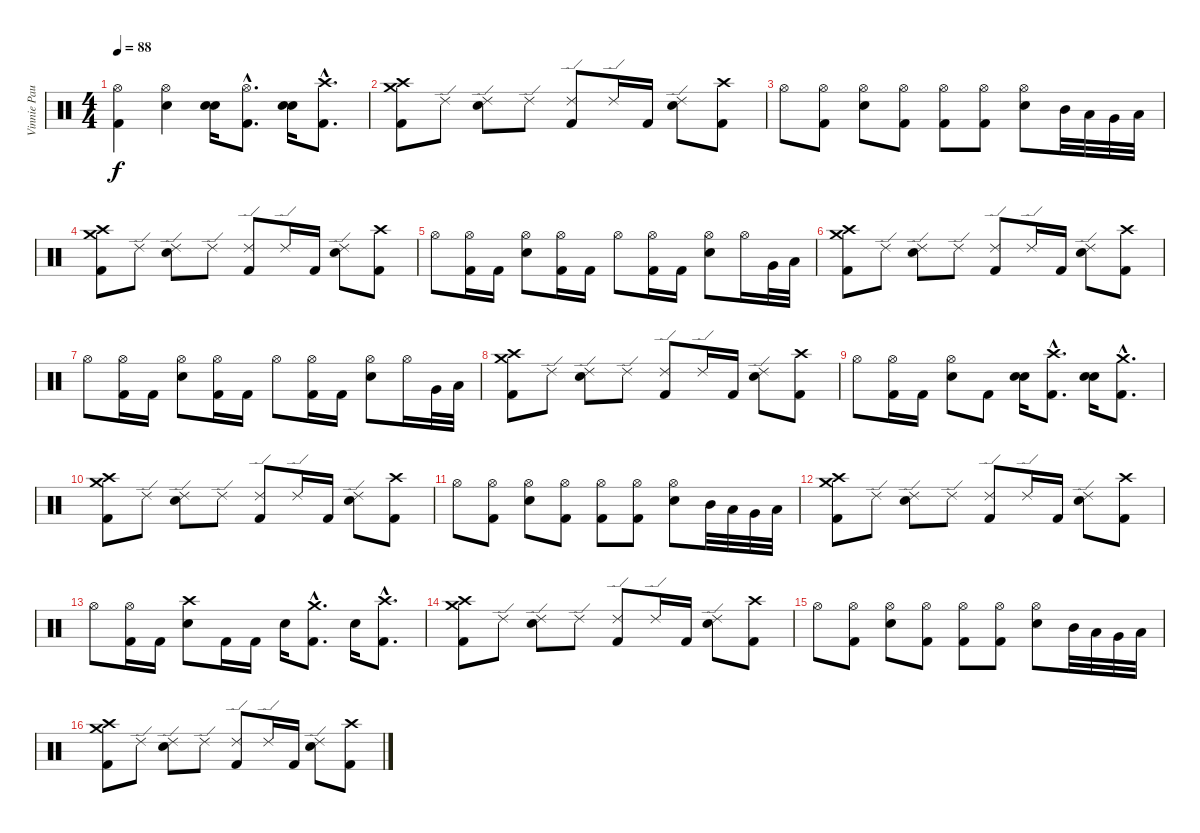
\track ("Vinnie Paul (Drums)" "Vinnie Pau") {instrument percussion}
\staff {score}
\articulation defaults
\ts (4 4)
\tempo 88
\clef neutral
\ks c
("Hi-Hat (open)" "Kick (hit) 2").4{dy f} ("Hi-Hat (open)" "Snare (hit) 2").4 ("Snare (hit) 2" "Snare (hit) 2").16{bd 480} ("Hi-Hat (open)"{hac} "Kick (hit) 2"{hac}).8{d} ("Snare (hit) 2" "Snare (hit) 2").16{bd 480} ("Crash high (hit)"{hac} "Kick (hit) 2"{hac}).8{d} |
("Crash high (hit)" "Crash medium (hit)" "Kick (hit) 2").8 "Ride (edge) 2".8 ("Ride (edge) 2" "Snare (hit) 2").8 "Ride (edge) 2".8 ("Ride (edge) 2" "Kick (hit) 2").8 "Ride (edge) 2".16 "Kick (hit) 2".16 ("Ride (edge) 2" "Snare (hit) 2").8 ("Crash high (hit)" "Kick (hit) 2").8 |
"Hi-Hat (open)".8 ("Hi-Hat (open)" "Kick (hit) 2").8 ("Hi-Hat (open)" "Snare (hit) 2").8 ("Hi-Hat (open)" "Kick (hit) 2").8 ("Hi-Hat (open)" "Kick (hit) 2").8 ("Hi-Hat (open)" "Kick (hit) 2").8 ("Hi-Hat (open)" "Snare (hit) 2").8 "Mid Tom (hit)".32 "Low Tom (hit)".32 "Very Low Tom (hit)".32 "Low Floor Tom (hit)".32 |
("Crash high (hit)" "Crash medium (hit)" "Kick (hit) 2").8 "Ride (edge) 2".8 ("Ride (edge) 2" "Snare (hit) 2").8 "Ride (edge) 2".8 ("Ride (edge) 2" "Kick (hit) 2").8 "Ride (edge) 2".16 "Kick (hit) 2".16 ("Ride (edge) 2" "Snare (hit) 2").8 ("Crash high (hit)" "Kick (hit) 2").8 |
"Hi-Hat (open)".8 ("Hi-Hat (open)" "Kick (hit) 2").16 "Kick (hit) 2".16 ("Hi-Hat (open)" "Snare (hit) 2").8 ("Hi-Hat (open)" "Kick (hit) 2").16 "Kick (hit) 2".16 "Hi-Hat (open)".8 ("Hi-Hat (open)" "Kick (hit) 2").16 "Kick (hit) 2".16 ("Hi-Hat (open)" "Snare (hit) 2").8 "Hi-Hat (open)".16 "Very Low Tom (hit)".32 "Low Floor Tom (hit)".32 |
("Crash high (hit)" "Crash medium (hit)" "Kick (hit) 2").8 "Ride (edge) 2".8 ("Ride (edge) 2" "Snare (hit) 2").8 "Ride (edge) 2".8 ("Ride (edge) 2" "Kick (hit) 2").8 "Ride (edge) 2".16 "Kick (hit) 2".16 ("Ride (edge) 2" "Snare (hit) 2").8 ("Crash high (hit)" "Kick (hit) 2").8 |
"Hi-Hat (open)".8 ("Hi-Hat (open)" "Kick (hit) 2").16 "Kick (hit) 2".16 ("Hi-Hat (open)" "Snare (hit) 2").8 ("Hi-Hat (open)" "Kick (hit) 2").16 "Kick (hit) 2".16 "Hi-Hat (open)".8 ("Hi-Hat (open)" "Kick (hit) 2").16 "Kick (hit) 2".16 ("Hi-Hat (open)" "Snare (hit) 2").8 "Hi-Hat (open)".16 "Very Low Tom (hit)".32 "Low Floor Tom (hit)".32 |
("Crash high (hit)" "Crash medium (hit)" "Kick (hit) 2").8 "Ride (edge) 2".8 ("Ride (edge) 2" "Snare (hit) 2").8 "Ride (edge) 2".8 ("Ride (edge) 2" "Kick (hit) 2").8 "Ride (edge) 2".16 "Kick (hit) 2".16 ("Ride (edge) 2" "Snare (hit) 2").8 ("Crash high (hit)" "Kick (hit) 2").8 |
"Hi-Hat (open)".8 ("Hi-Hat (open)" "Kick (hit) 2").16 "Kick (hit) 2".16 ("Hi-Hat (open)" "Snare (hit) 2").8 "Kick (hit) 2".8 ("Snare (hit) 2" "Snare (hit) 2").16{bd 480} ("Crash high (hit)"{hac} "Kick (hit) 2"{hac}).8{d} ("Snare (hit) 2" "Snare (hit) 2").16{bd 480} ("Crash medium (hit)"{hac} "Kick (hit) 2"{hac}).8{d} |
("Crash high (hit)" "Crash medium (hit)" "Kick (hit) 2").8 "Ride (edge) 2".8 ("Ride (edge) 2" "Snare (hit) 2").8 "Ride (edge) 2".8 ("Ride (edge) 2" "Kick (hit) 2").8 "Ride (edge) 2".16 "Kick (hit) 2".16 ("Ride (edge) 2" "Snare (hit) 2").8 ("Crash high (hit)" "Kick (hit) 2").8 |
"Hi-Hat (open)".8 ("Hi-Hat (open)" "Kick (hit) 2").8 ("Hi-Hat (open)" "Snare (hit) 2").8 ("Hi-Hat (open)" "Kick (hit) 2").8 ("Hi-Hat (open)" "Kick (hit) 2").8 ("Hi-Hat (open)" "Kick (hit) 2").8 ("Hi-Hat (open)" "Snare (hit) 2").8 "Mid Tom (hit)".32 "Low Tom (hit)".32 "Very Low Tom (hit)".32 "Low Floor Tom (hit)".32 |
("Crash high (hit)" "Crash medium (hit)" "Kick (hit) 2").8 "Ride (edge) 2".8 ("Ride (edge) 2" "Snare (hit) 2").8 "Ride (edge) 2".8 ("Ride (edge) 2" "Kick (hit) 2").8 "Ride (edge) 2".16 "Kick (hit) 2".16 ("Ride (edge) 2" "Snare (hit) 2").8 ("Crash high (hit)" "Kick (hit) 2").8 |
"Hi-Hat (open)".8 ("Hi-Hat (open)" "Kick (hit) 2").16 "Kick (hit) 2".16 ("Crash high (hit)" "Snare (hit) 2").8 "Kick (hit) 2".16 "Kick (hit) 2".16 "Snare (hit) 2".16 ("Crash medium (hit)"{hac} "Kick (hit) 2"{hac}).8{d} "Snare (hit) 2".16 ("Crash high (hit)"{hac} "Kick (hit) 2"{hac}).8{d} |
("Crash high (hit)" "Crash medium (hit)" "Kick (hit) 2").8 "Ride (edge) 2".8 ("Ride (edge) 2" "Snare (hit) 2").8 "Ride (edge) 2".8 ("Ride (edge) 2" "Kick (hit) 2").8 "Ride (edge) 2".16 "Kick (hit) 2".16 ("Ride (edge) 2" "Snare (hit) 2").8 ("Crash high (hit)" "Kick (hit) 2").8 |
"Hi-Hat (open)".8 ("Hi-Hat (open)" "Kick (hit) 2").8 ("Hi-Hat (open)" "Snare (hit) 2").8 ("Hi-Hat (open)" "Kick (hit) 2").8 ("Hi-Hat (open)" "Kick (hit) 2").8 ("Hi-Hat (open)" "Kick (hit) 2").8 ("Hi-Hat (open)" "Snare (hit) 2").8 "Mid Tom (hit)".32 "Low Tom (hit)".32 "Very Low Tom (hit)".32 "Low Floor Tom (hit)".32 |
("Crash high (hit)" "Crash medium (hit)" "Kick (hit) 2").8 "Ride (edge) 2".8 ("Ride (edge) 2" "Snare (hit) 2").8 "Ride (edge) 2".8 ("Ride (edge) 2" "Kick (hit) 2").8 "Ride (edge) 2".16 "Kick (hit) 2".16 ("Ride (edge) 2" "Snare (hit) 2").8 ("Crash high (hit)" "Kick (hit) 2").8
